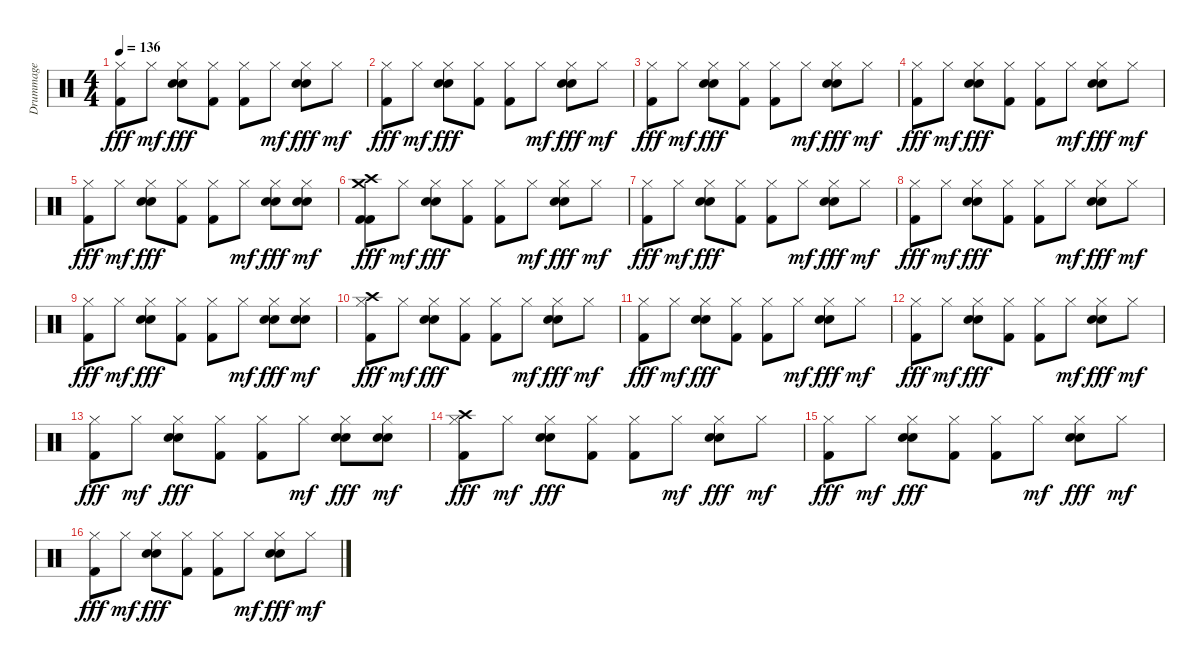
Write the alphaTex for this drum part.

\track ("Drummage" "Drummage") {instrument percussion}
\staff {score}
\articulation defaults
\ts (4 4)
\tempo 136
\clef neutral
\ks c
("Hi-Hat (closed)" "Kick (hit) 2").8{dy fff} "Hi-Hat (closed)".8{dy mf} ("Hi-Hat (closed)" "Snare (hit) 2" "Electric Snare (hit)").8{dy fff} ("Hi-Hat (closed)" "Kick (hit) 2").8 ("Hi-Hat (closed)" "Kick (hit) 2").8 "Hi-Hat (closed)".8{dy mf} ("Hi-Hat (closed)" "Electric Snare (hit)" "Snare (hit) 2").8{dy fff} "Hi-Hat (closed)".8{dy mf} |
("Hi-Hat (closed)" "Kick (hit) 2").8{dy fff} "Hi-Hat (closed)".8{dy mf} ("Hi-Hat (closed)" "Snare (hit) 2" "Electric Snare (hit)").8{dy fff} ("Hi-Hat (closed)" "Kick (hit) 2").8 ("Hi-Hat (closed)" "Kick (hit) 2").8 "Hi-Hat (closed)".8{dy mf} ("Hi-Hat (closed)" "Electric Snare (hit)" "Snare (hit) 2").8{dy fff} "Hi-Hat (closed)".8{dy mf} |
("Hi-Hat (closed)" "Kick (hit) 2").8{dy fff} "Hi-Hat (closed)".8{dy mf} ("Hi-Hat (closed)" "Snare (hit) 2" "Electric Snare (hit)").8{dy fff} ("Hi-Hat (closed)" "Kick (hit) 2").8 ("Hi-Hat (closed)" "Kick (hit) 2").8 "Hi-Hat (closed)".8{dy mf} ("Hi-Hat (closed)" "Electric Snare (hit)" "Snare (hit) 2").8{dy fff} "Hi-Hat (closed)".8{dy mf} |
("Hi-Hat (closed)" "Kick (hit) 2").8{dy fff} "Hi-Hat (closed)".8{dy mf} ("Hi-Hat (closed)" "Snare (hit) 2" "Electric Snare (hit)").8{dy fff} ("Hi-Hat (closed)" "Kick (hit) 2").8 ("Hi-Hat (closed)" "Kick (hit) 2").8 "Hi-Hat (closed)".8{dy mf} ("Hi-Hat (closed)" "Electric Snare (hit)" "Snare (hit) 2").8{dy fff} "Hi-Hat (closed)".8{dy mf} |
("Hi-Hat (closed)" "Kick (hit) 2").8{dy fff} "Hi-Hat (closed)".8{dy mf} ("Hi-Hat (closed)" "Snare (hit) 2" "Electric Snare (hit)").8{dy fff} ("Hi-Hat (closed)" "Kick (hit) 2").8 ("Hi-Hat (closed)" "Kick (hit) 2").8 "Hi-Hat (closed)".8{dy mf} ("Hi-Hat (closed)" "Electric Snare (hit)" "Snare (hit) 2").8{dy fff} ("Snare (hit) 2" "Electric Snare (hit)" "Hi-Hat (closed)").8{dy mf} |
("Crash high (hit)" "Kick (hit) 2" "Crash medium (hit)" "Kick (hit) 2").8{dy fff} "Hi-Hat (closed)".8{dy mf} ("Hi-Hat (closed)" "Snare (hit) 2" "Electric Snare (hit)").8{dy fff} ("Hi-Hat (closed)" "Kick (hit) 2").8 ("Hi-Hat (closed)" "Kick (hit) 2").8 "Hi-Hat (closed)".8{dy mf} ("Hi-Hat (closed)" "Electric Snare (hit)" "Snare (hit) 2").8{dy fff} "Hi-Hat (closed)".8{dy mf} |
("Hi-Hat (closed)" "Kick (hit) 2").8{dy fff} "Hi-Hat (closed)".8{dy mf} ("Hi-Hat (closed)" "Snare (hit) 2" "Electric Snare (hit)").8{dy fff} ("Hi-Hat (closed)" "Kick (hit) 2").8 ("Hi-Hat (closed)" "Kick (hit) 2").8 "Hi-Hat (closed)".8{dy mf} ("Hi-Hat (closed)" "Electric Snare (hit)" "Snare (hit) 2").8{dy fff} "Hi-Hat (closed)".8{dy mf} |
("Hi-Hat (closed)" "Kick (hit) 2").8{dy fff} "Hi-Hat (closed)".8{dy mf} ("Hi-Hat (closed)" "Snare (hit) 2" "Electric Snare (hit)").8{dy fff} ("Hi-Hat (closed)" "Kick (hit) 2").8 ("Hi-Hat (closed)" "Kick (hit) 2").8 "Hi-Hat (closed)".8{dy mf} ("Hi-Hat (closed)" "Electric Snare (hit)" "Snare (hit) 2").8{dy fff} "Hi-Hat (closed)".8{dy mf} |
("Hi-Hat (closed)" "Kick (hit) 2").8{dy fff} "Hi-Hat (closed)".8{dy mf} ("Hi-Hat (closed)" "Snare (hit) 2" "Electric Snare (hit)").8{dy fff} ("Hi-Hat (closed)" "Kick (hit) 2").8 ("Hi-Hat (closed)" "Kick (hit) 2").8 "Hi-Hat (closed)".8{dy mf} ("Hi-Hat (closed)" "Electric Snare (hit)" "Snare (hit) 2").8{dy fff} ("Snare (hit) 2" "Electric Snare (hit)" "Hi-Hat (closed)").8{dy mf} |
("Crash high (hit)" "Hi-Hat (closed)" "Kick (hit) 2").8{dy fff} "Hi-Hat (closed)".8{dy mf} ("Hi-Hat (closed)" "Snare (hit) 2" "Electric Snare (hit)").8{dy fff} ("Hi-Hat (closed)" "Kick (hit) 2").8 ("Hi-Hat (closed)" "Kick (hit) 2").8 "Hi-Hat (closed)".8{dy mf} ("Hi-Hat (closed)" "Electric Snare (hit)" "Snare (hit) 2").8{dy fff} "Hi-Hat (closed)".8{dy mf} |
("Hi-Hat (closed)" "Kick (hit) 2").8{dy fff} "Hi-Hat (closed)".8{dy mf} ("Hi-Hat (closed)" "Snare (hit) 2" "Electric Snare (hit)").8{dy fff} ("Hi-Hat (closed)" "Kick (hit) 2").8 ("Hi-Hat (closed)" "Kick (hit) 2").8 "Hi-Hat (closed)".8{dy mf} ("Hi-Hat (closed)" "Electric Snare (hit)" "Snare (hit) 2").8{dy fff} "Hi-Hat (closed)".8{dy mf} |
("Hi-Hat (closed)" "Kick (hit) 2").8{dy fff} "Hi-Hat (closed)".8{dy mf} ("Hi-Hat (closed)" "Snare (hit) 2" "Electric Snare (hit)").8{dy fff} ("Hi-Hat (closed)" "Kick (hit) 2").8 ("Hi-Hat (closed)" "Kick (hit) 2").8 "Hi-Hat (closed)".8{dy mf} ("Hi-Hat (closed)" "Electric Snare (hit)" "Snare (hit) 2").8{dy fff} "Hi-Hat (closed)".8{dy mf} |
("Hi-Hat (closed)" "Kick (hit) 2").8{dy fff} "Hi-Hat (closed)".8{dy mf} ("Hi-Hat (closed)" "Snare (hit) 2" "Electric Snare (hit)").8{dy fff} ("Hi-Hat (closed)" "Kick (hit) 2").8 ("Hi-Hat (closed)" "Kick (hit) 2").8 "Hi-Hat (closed)".8{dy mf} ("Hi-Hat (closed)" "Electric Snare (hit)" "Snare (hit) 2").8{dy fff} ("Snare (hit) 2" "Electric Snare (hit)" "Hi-Hat (closed)").8{dy mf} |
("Crash high (hit)" "Hi-Hat (closed)" "Kick (hit) 2").8{dy fff} "Hi-Hat (closed)".8{dy mf} ("Hi-Hat (closed)" "Snare (hit) 2" "Electric Snare (hit)").8{dy fff} ("Hi-Hat (closed)" "Kick (hit) 2").8 ("Hi-Hat (closed)" "Kick (hit) 2").8 "Hi-Hat (closed)".8{dy mf} ("Hi-Hat (closed)" "Electric Snare (hit)" "Snare (hit) 2").8{dy fff} "Hi-Hat (closed)".8{dy mf} |
("Hi-Hat (closed)" "Kick (hit) 2").8{dy fff} "Hi-Hat (closed)".8{dy mf} ("Hi-Hat (closed)" "Snare (hit) 2" "Electric Snare (hit)").8{dy fff} ("Hi-Hat (closed)" "Kick (hit) 2").8 ("Hi-Hat (closed)" "Kick (hit) 2").8 "Hi-Hat (closed)".8{dy mf} ("Hi-Hat (closed)" "Electric Snare (hit)" "Snare (hit) 2").8{dy fff} "Hi-Hat (closed)".8{dy mf} |
("Hi-Hat (closed)" "Kick (hit) 2").8{dy fff} "Hi-Hat (closed)".8{dy mf} ("Hi-Hat (closed)" "Snare (hit) 2" "Electric Snare (hit)").8{dy fff} ("Hi-Hat (closed)" "Kick (hit) 2").8 ("Hi-Hat (closed)" "Kick (hit) 2").8 "Hi-Hat (closed)".8{dy mf} ("Hi-Hat (closed)" "Electric Snare (hit)" "Snare (hit) 2").8{dy fff} "Hi-Hat (closed)".8{dy mf}
